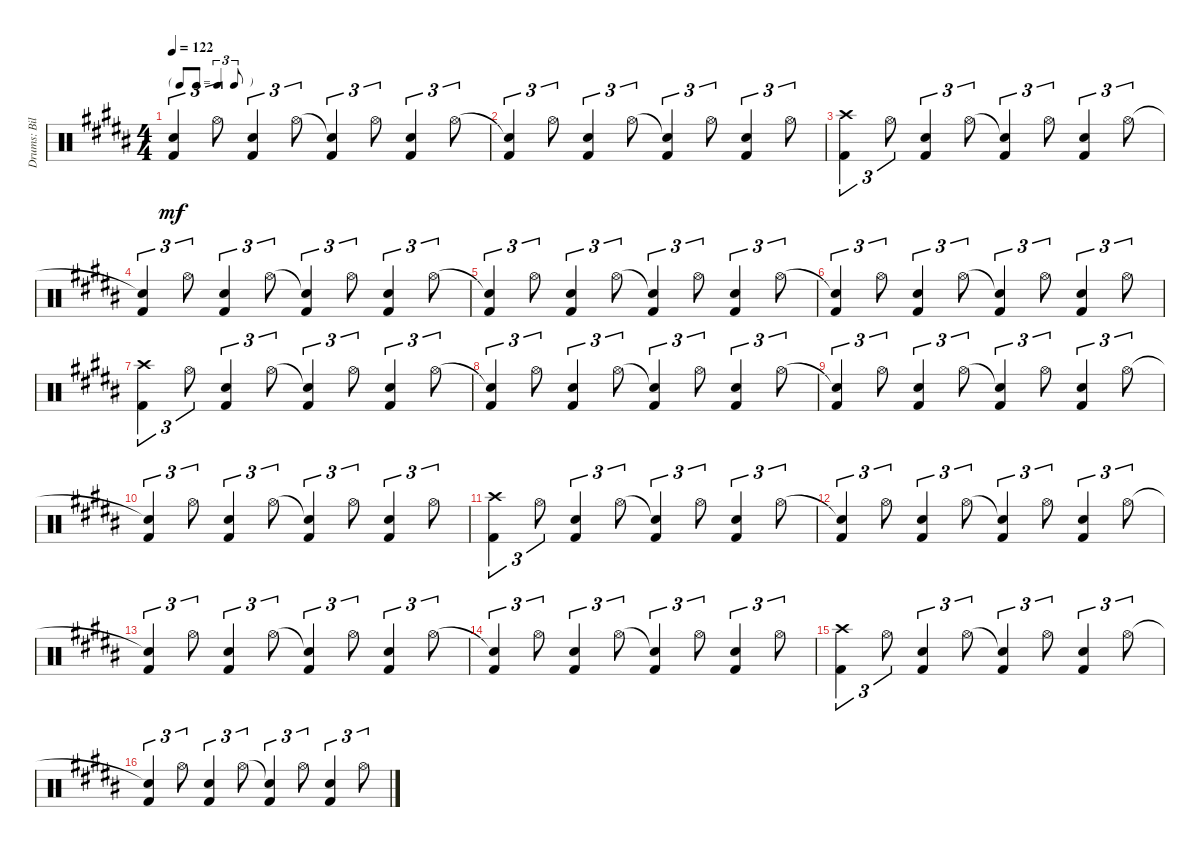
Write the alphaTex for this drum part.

\track ("Drums: Bill" "Drums: Bil") {instrument percussion}
\staff {score}
\articulation defaults
\ts (4 4)
\tf triplet8th
\tempo 122
\clef neutral
\ks b
("Snare (hit)"{t} "Kick (hit) 2").4{tu (3 2) dy mf} "Hi-Hat (open)".8{tu (3 2)} ("Electric Snare (hit)" "Kick (hit) 2").4{tu (3 2)} "Hi-Hat (open)".8{tu (3 2)} ("Snare (hit)"{t} "Kick (hit) 2").4{tu (3 2)} "Hi-Hat (open)".8{tu (3 2)} ("Electric Snare (hit)" "Kick (hit) 2").4{tu (3 2)} "Hi-Hat (open)".8{tu (3 2)} |
("Snare (hit)"{t} "Kick (hit) 2").4{tu (3 2)} "Hi-Hat (open)".8{tu (3 2)} ("Electric Snare (hit)" "Kick (hit) 2").4{tu (3 2)} "Hi-Hat (open)".8{tu (3 2)} ("Snare (hit)"{t} "Kick (hit) 2").4{tu (3 2)} "Hi-Hat (open)".8{tu (3 2)} ("Electric Snare (hit)" "Kick (hit) 2").4{tu (3 2)} "Hi-Hat (open)".8{tu (3 2)} |
("Crash high (hit)" "Kick (hit) 2").4{tu (3 2)} "Hi-Hat (open)".8{tu (3 2)} ("Electric Snare (hit)" "Kick (hit) 2").4{tu (3 2)} "Hi-Hat (open)".8{tu (3 2)} ("Snare (hit)"{t} "Kick (hit) 2").4{tu (3 2)} "Hi-Hat (open)".8{tu (3 2)} ("Electric Snare (hit)" "Kick (hit) 2").4{tu (3 2)} "Hi-Hat (open)".8{tu (3 2)} |
("Snare (hit)"{t} "Kick (hit) 2").4{tu (3 2)} "Hi-Hat (open)".8{tu (3 2)} ("Electric Snare (hit)" "Kick (hit) 2").4{tu (3 2)} "Hi-Hat (open)".8{tu (3 2)} ("Snare (hit)"{t} "Kick (hit) 2").4{tu (3 2)} "Hi-Hat (open)".8{tu (3 2)} ("Electric Snare (hit)" "Kick (hit) 2").4{tu (3 2)} "Hi-Hat (open)".8{tu (3 2)} |
("Snare (hit)"{t} "Kick (hit) 2").4{tu (3 2)} "Hi-Hat (open)".8{tu (3 2)} ("Electric Snare (hit)" "Kick (hit) 2").4{tu (3 2)} "Hi-Hat (open)".8{tu (3 2)} ("Snare (hit)"{t} "Kick (hit) 2").4{tu (3 2)} "Hi-Hat (open)".8{tu (3 2)} ("Electric Snare (hit)" "Kick (hit) 2").4{tu (3 2)} "Hi-Hat (open)".8{tu (3 2)} |
("Snare (hit)"{t} "Kick (hit) 2").4{tu (3 2)} "Hi-Hat (open)".8{tu (3 2)} ("Electric Snare (hit)" "Kick (hit) 2").4{tu (3 2)} "Hi-Hat (open)".8{tu (3 2)} ("Snare (hit)"{t} "Kick (hit) 2").4{tu (3 2)} "Hi-Hat (open)".8{tu (3 2)} ("Electric Snare (hit)" "Kick (hit) 2").4{tu (3 2)} "Hi-Hat (open)".8{tu (3 2)} |
("Crash high (hit)" "Kick (hit) 2").4{tu (3 2)} "Hi-Hat (open)".8{tu (3 2)} ("Electric Snare (hit)" "Kick (hit) 2").4{tu (3 2)} "Hi-Hat (open)".8{tu (3 2)} ("Snare (hit)"{t} "Kick (hit) 2").4{tu (3 2)} "Hi-Hat (open)".8{tu (3 2)} ("Electric Snare (hit)" "Kick (hit) 2").4{tu (3 2)} "Hi-Hat (open)".8{tu (3 2)} |
("Snare (hit)"{t} "Kick (hit) 2").4{tu (3 2)} "Hi-Hat (open)".8{tu (3 2)} ("Electric Snare (hit)" "Kick (hit) 2").4{tu (3 2)} "Hi-Hat (open)".8{tu (3 2)} ("Snare (hit)"{t} "Kick (hit) 2").4{tu (3 2)} "Hi-Hat (open)".8{tu (3 2)} ("Electric Snare (hit)" "Kick (hit) 2").4{tu (3 2)} "Hi-Hat (open)".8{tu (3 2)} |
("Snare (hit)"{t} "Kick (hit) 2").4{tu (3 2)} "Hi-Hat (open)".8{tu (3 2)} ("Electric Snare (hit)" "Kick (hit) 2").4{tu (3 2)} "Hi-Hat (open)".8{tu (3 2)} ("Snare (hit)"{t} "Kick (hit) 2").4{tu (3 2)} "Hi-Hat (open)".8{tu (3 2)} ("Electric Snare (hit)" "Kick (hit) 2").4{tu (3 2)} "Hi-Hat (open)".8{tu (3 2)} |
("Snare (hit)"{t} "Kick (hit) 2").4{tu (3 2)} "Hi-Hat (open)".8{tu (3 2)} ("Electric Snare (hit)" "Kick (hit) 2").4{tu (3 2)} "Hi-Hat (open)".8{tu (3 2)} ("Snare (hit)"{t} "Kick (hit) 2").4{tu (3 2)} "Hi-Hat (open)".8{tu (3 2)} ("Electric Snare (hit)" "Kick (hit) 2").4{tu (3 2)} "Hi-Hat (open)".8{tu (3 2)} |
("Crash high (hit)" "Kick (hit) 2").4{tu (3 2)} "Hi-Hat (open)".8{tu (3 2)} ("Electric Snare (hit)" "Kick (hit) 2").4{tu (3 2)} "Hi-Hat (open)".8{tu (3 2)} ("Snare (hit)"{t} "Kick (hit) 2").4{tu (3 2)} "Hi-Hat (open)".8{tu (3 2)} ("Electric Snare (hit)" "Kick (hit) 2").4{tu (3 2)} "Hi-Hat (open)".8{tu (3 2)} |
("Snare (hit)"{t} "Kick (hit) 2").4{tu (3 2)} "Hi-Hat (open)".8{tu (3 2)} ("Electric Snare (hit)" "Kick (hit) 2").4{tu (3 2)} "Hi-Hat (open)".8{tu (3 2)} ("Snare (hit)"{t} "Kick (hit) 2").4{tu (3 2)} "Hi-Hat (open)".8{tu (3 2)} ("Electric Snare (hit)" "Kick (hit) 2").4{tu (3 2)} "Hi-Hat (open)".8{tu (3 2)} |
("Snare (hit)"{t} "Kick (hit) 2").4{tu (3 2)} "Hi-Hat (open)".8{tu (3 2)} ("Electric Snare (hit)" "Kick (hit) 2").4{tu (3 2)} "Hi-Hat (open)".8{tu (3 2)} ("Snare (hit)"{t} "Kick (hit) 2").4{tu (3 2)} "Hi-Hat (open)".8{tu (3 2)} ("Electric Snare (hit)" "Kick (hit) 2").4{tu (3 2)} "Hi-Hat (open)".8{tu (3 2)} |
("Snare (hit)"{t} "Kick (hit) 2").4{tu (3 2)} "Hi-Hat (open)".8{tu (3 2)} ("Electric Snare (hit)" "Kick (hit) 2").4{tu (3 2)} "Hi-Hat (open)".8{tu (3 2)} ("Snare (hit)"{t} "Kick (hit) 2").4{tu (3 2)} "Hi-Hat (open)".8{tu (3 2)} ("Electric Snare (hit)" "Kick (hit) 2").4{tu (3 2)} "Hi-Hat (open)".8{tu (3 2)} |
("Crash high (hit)" "Kick (hit) 2").4{tu (3 2)} "Hi-Hat (open)".8{tu (3 2)} ("Electric Snare (hit)" "Kick (hit) 2").4{tu (3 2)} "Hi-Hat (open)".8{tu (3 2)} ("Snare (hit)"{t} "Kick (hit) 2").4{tu (3 2)} "Hi-Hat (open)".8{tu (3 2)} ("Electric Snare (hit)" "Kick (hit) 2").4{tu (3 2)} "Hi-Hat (open)".8{tu (3 2)} |
("Snare (hit)"{t} "Kick (hit) 2").4{tu (3 2)} "Hi-Hat (open)".8{tu (3 2)} ("Electric Snare (hit)" "Kick (hit) 2").4{tu (3 2)} "Hi-Hat (open)".8{tu (3 2)} ("Snare (hit)"{t} "Kick (hit) 2").4{tu (3 2)} "Hi-Hat (open)".8{tu (3 2)} ("Electric Snare (hit)" "Kick (hit) 2").4{tu (3 2)} "Hi-Hat (open)".8{tu (3 2)}
